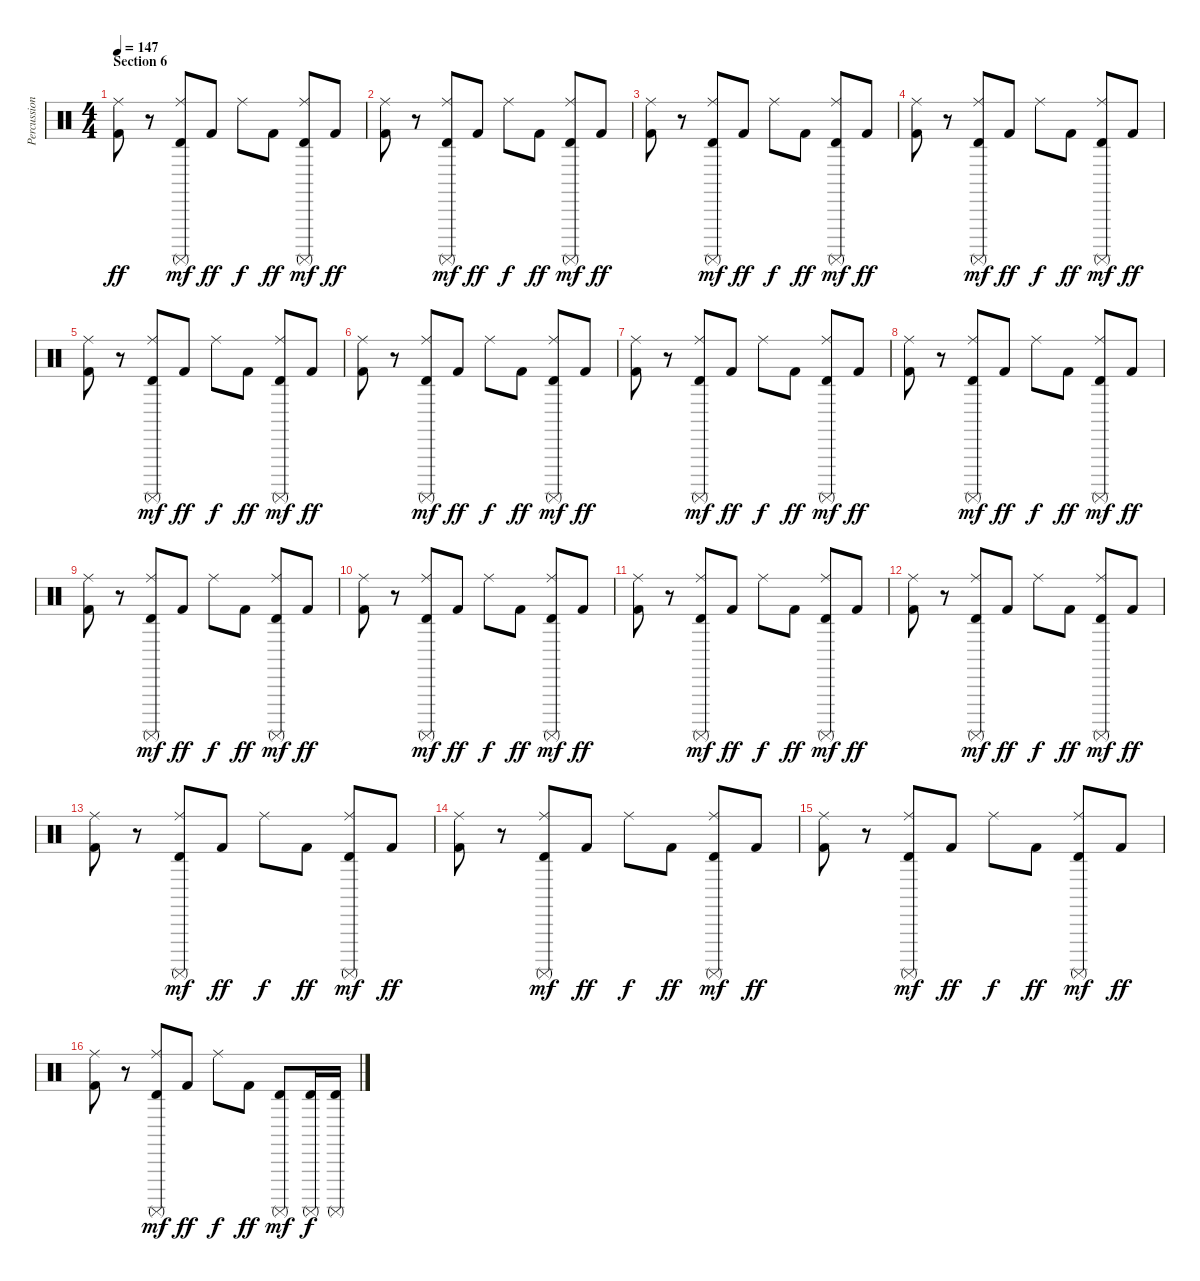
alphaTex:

\track ("Percussion" "Percussion") {instrument percussion}
\staff {score}
\articulation defaults
\ts (4 4)
\section ("" "Section 6")
\tempo 147
\clef neutral
\ks c
("Ride (middle)" "Kick (hit) 2").8{dy ff} r.8 ("Ride (middle)" "Surdo (mute)" "Timbale high (hit)").8{dy mf} "Kick (hit) 2".8{dy ff} "Ride (middle)".8{dy f} "Kick (hit) 2".8{dy ff} ("Ride (middle)" "Surdo (mute)" "Timbale high (hit)").8{dy mf} "Kick (hit) 2".8{dy ff} |
("Ride (middle)" "Kick (hit) 2").8 r.8 ("Ride (middle)" "Surdo (mute)" "Timbale high (hit)").8{dy mf} "Kick (hit) 2".8{dy ff} "Ride (middle)".8{dy f} "Kick (hit) 2".8{dy ff} ("Ride (middle)" "Surdo (mute)" "Timbale high (hit)").8{dy mf} "Kick (hit) 2".8{dy ff} |
("Ride (middle)" "Kick (hit) 2").8 r.8 ("Ride (middle)" "Surdo (mute)" "Timbale high (hit)").8{dy mf} "Kick (hit) 2".8{dy ff} "Ride (middle)".8{dy f} "Kick (hit) 2".8{dy ff} ("Ride (middle)" "Surdo (mute)" "Timbale high (hit)").8{dy mf} "Kick (hit) 2".8{dy ff} |
("Ride (middle)" "Kick (hit) 2").8 r.8 ("Ride (middle)" "Surdo (mute)" "Timbale high (hit)").8{dy mf} "Kick (hit) 2".8{dy ff} "Ride (middle)".8{dy f} "Kick (hit) 2".8{dy ff} ("Ride (middle)" "Surdo (mute)" "Timbale high (hit)").8{dy mf} "Kick (hit) 2".8{dy ff} |
("Ride (middle)" "Kick (hit) 2").8 r.8 ("Ride (middle)" "Surdo (mute)" "Timbale high (hit)").8{dy mf} "Kick (hit) 2".8{dy ff} "Ride (middle)".8{dy f} "Kick (hit) 2".8{dy ff} ("Ride (middle)" "Surdo (mute)" "Timbale high (hit)").8{dy mf} "Kick (hit) 2".8{dy ff} |
("Ride (middle)" "Kick (hit) 2").8 r.8 ("Ride (middle)" "Surdo (mute)" "Timbale high (hit)").8{dy mf} "Kick (hit) 2".8{dy ff} "Ride (middle)".8{dy f} "Kick (hit) 2".8{dy ff} ("Ride (middle)" "Surdo (mute)" "Timbale high (hit)").8{dy mf} "Kick (hit) 2".8{dy ff} |
("Ride (middle)" "Kick (hit) 2").8 r.8 ("Ride (middle)" "Surdo (mute)" "Timbale high (hit)").8{dy mf} "Kick (hit) 2".8{dy ff} "Ride (middle)".8{dy f} "Kick (hit) 2".8{dy ff} ("Ride (middle)" "Surdo (mute)" "Timbale high (hit)").8{dy mf} "Kick (hit) 2".8{dy ff} |
("Ride (middle)" "Kick (hit) 2").8 r.8 ("Ride (middle)" "Surdo (mute)" "Timbale high (hit)").8{dy mf} "Kick (hit) 2".8{dy ff} "Ride (middle)".8{dy f} "Kick (hit) 2".8{dy ff} ("Ride (middle)" "Surdo (mute)" "Timbale high (hit)").8{dy mf} "Kick (hit) 2".8{dy ff} |
("Ride (middle)" "Kick (hit) 2").8 r.8 ("Ride (middle)" "Surdo (mute)" "Timbale high (hit)").8{dy mf} "Kick (hit) 2".8{dy ff} "Ride (middle)".8{dy f} "Kick (hit) 2".8{dy ff} ("Ride (middle)" "Surdo (mute)" "Timbale high (hit)").8{dy mf} "Kick (hit) 2".8{dy ff} |
("Ride (middle)" "Kick (hit) 2").8 r.8 ("Ride (middle)" "Surdo (mute)" "Timbale high (hit)").8{dy mf} "Kick (hit) 2".8{dy ff} "Ride (middle)".8{dy f} "Kick (hit) 2".8{dy ff} ("Ride (middle)" "Surdo (mute)" "Timbale high (hit)").8{dy mf} "Kick (hit) 2".8{dy ff} |
("Ride (middle)" "Kick (hit) 2").8 r.8 ("Ride (middle)" "Surdo (mute)" "Timbale high (hit)").8{dy mf} "Kick (hit) 2".8{dy ff} "Ride (middle)".8{dy f} "Kick (hit) 2".8{dy ff} ("Ride (middle)" "Surdo (mute)" "Timbale high (hit)").8{dy mf} "Kick (hit) 2".8{dy ff} |
("Ride (middle)" "Kick (hit) 2").8 r.8 ("Ride (middle)" "Surdo (mute)" "Timbale high (hit)").8{dy mf} "Kick (hit) 2".8{dy ff} "Ride (middle)".8{dy f} "Kick (hit) 2".8{dy ff} ("Ride (middle)" "Surdo (mute)" "Timbale high (hit)").8{dy mf} "Kick (hit) 2".8{dy ff} |
("Ride (middle)" "Kick (hit) 2").8 r.8 ("Ride (middle)" "Surdo (mute)" "Timbale high (hit)").8{dy mf} "Kick (hit) 2".8{dy ff} "Ride (middle)".8{dy f} "Kick (hit) 2".8{dy ff} ("Ride (middle)" "Surdo (mute)" "Timbale high (hit)").8{dy mf} "Kick (hit) 2".8{dy ff} |
("Ride (middle)" "Kick (hit) 2").8 r.8 ("Ride (middle)" "Surdo (mute)" "Timbale high (hit)").8{dy mf} "Kick (hit) 2".8{dy ff} "Ride (middle)".8{dy f} "Kick (hit) 2".8{dy ff} ("Ride (middle)" "Surdo (mute)" "Timbale high (hit)").8{dy mf} "Kick (hit) 2".8{dy ff} |
("Ride (middle)" "Kick (hit) 2").8 r.8 ("Ride (middle)" "Surdo (mute)" "Timbale high (hit)").8{dy mf} "Kick (hit) 2".8{dy ff} "Ride (middle)".8{dy f} "Kick (hit) 2".8{dy ff} ("Ride (middle)" "Surdo (mute)" "Timbale high (hit)").8{dy mf} "Kick (hit) 2".8{dy ff} |
("Ride (middle)" "Kick (hit) 2").8 r.8 ("Ride (middle)" "Surdo (mute)" "Timbale high (hit)").8{dy mf} "Kick (hit) 2".8{dy ff} "Ride (middle)".8{dy f} "Kick (hit) 2".8{dy ff} ("Surdo (mute)" "Timbale high (hit)").8{dy mf} ("Surdo (mute)" "Timbale high (hit)").16{dy f} ("Surdo (mute)" "Timbale high (hit)").16
